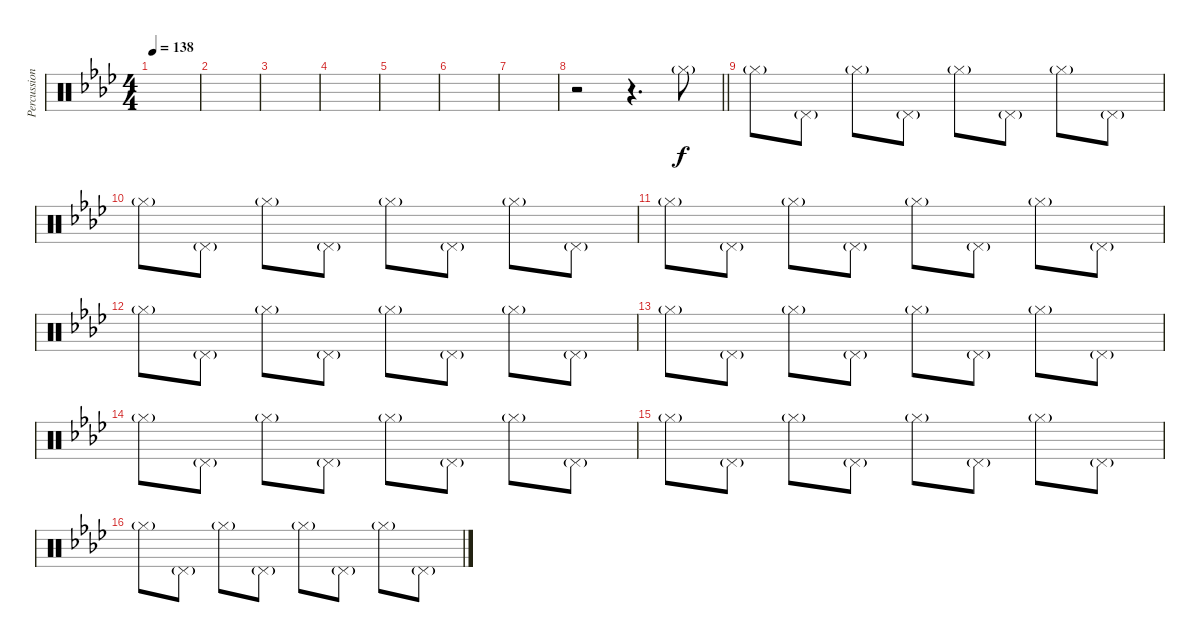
\track ("Percussion" "Percussion") {instrument percussion}
\staff {score}
\articulation defaults
\ts (4 4)
\tempo 138
\clef neutral
\ks ab
|
|
|
|
|
|
|
\barLineRight lightlight
r.2 r.4{d} "Hi-Hat (closed)"{g}.8 |
"Hi-Hat (closed)"{g}.8 "Pedal Hi-Hat (hit)"{g}.8 "Hi-Hat (closed)"{g}.8 "Pedal Hi-Hat (hit)"{g}.8 "Hi-Hat (closed)"{g}.8 "Pedal Hi-Hat (hit)"{g}.8 "Hi-Hat (closed)"{g}.8 "Pedal Hi-Hat (hit)"{g}.8 |
"Hi-Hat (closed)"{g}.8 "Pedal Hi-Hat (hit)"{g}.8 "Hi-Hat (closed)"{g}.8 "Pedal Hi-Hat (hit)"{g}.8 "Hi-Hat (closed)"{g}.8 "Pedal Hi-Hat (hit)"{g}.8 "Hi-Hat (closed)"{g}.8 "Pedal Hi-Hat (hit)"{g}.8 |
"Hi-Hat (closed)"{g}.8 "Pedal Hi-Hat (hit)"{g}.8 "Hi-Hat (closed)"{g}.8 "Pedal Hi-Hat (hit)"{g}.8 "Hi-Hat (closed)"{g}.8 "Pedal Hi-Hat (hit)"{g}.8 "Hi-Hat (closed)"{g}.8 "Pedal Hi-Hat (hit)"{g}.8 |
"Hi-Hat (closed)"{g}.8 "Pedal Hi-Hat (hit)"{g}.8 "Hi-Hat (closed)"{g}.8 "Pedal Hi-Hat (hit)"{g}.8 "Hi-Hat (closed)"{g}.8 "Pedal Hi-Hat (hit)"{g}.8 "Hi-Hat (closed)"{g}.8 "Pedal Hi-Hat (hit)"{g}.8 |
"Hi-Hat (closed)"{g}.8 "Pedal Hi-Hat (hit)"{g}.8 "Hi-Hat (closed)"{g}.8 "Pedal Hi-Hat (hit)"{g}.8 "Hi-Hat (closed)"{g}.8 "Pedal Hi-Hat (hit)"{g}.8 "Hi-Hat (closed)"{g}.8 "Pedal Hi-Hat (hit)"{g}.8 |
"Hi-Hat (closed)"{g}.8 "Pedal Hi-Hat (hit)"{g}.8 "Hi-Hat (closed)"{g}.8 "Pedal Hi-Hat (hit)"{g}.8 "Hi-Hat (closed)"{g}.8 "Pedal Hi-Hat (hit)"{g}.8 "Hi-Hat (closed)"{g}.8 "Pedal Hi-Hat (hit)"{g}.8 |
"Hi-Hat (closed)"{g}.8 "Pedal Hi-Hat (hit)"{g}.8 "Hi-Hat (closed)"{g}.8 "Pedal Hi-Hat (hit)"{g}.8 "Hi-Hat (closed)"{g}.8 "Pedal Hi-Hat (hit)"{g}.8 "Hi-Hat (closed)"{g}.8 "Pedal Hi-Hat (hit)"{g}.8 |
"Hi-Hat (closed)"{g}.8 "Pedal Hi-Hat (hit)"{g}.8 "Hi-Hat (closed)"{g}.8 "Pedal Hi-Hat (hit)"{g}.8 "Hi-Hat (closed)"{g}.8 "Pedal Hi-Hat (hit)"{g}.8 "Hi-Hat (closed)"{g}.8 "Pedal Hi-Hat (hit)"{g}.8
